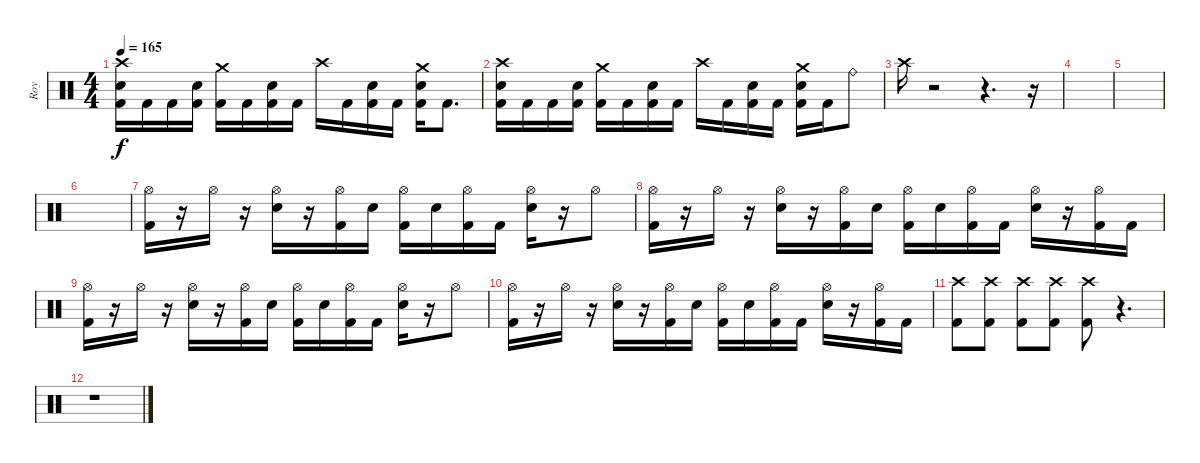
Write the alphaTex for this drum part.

\track ("Roy" "Roy") {instrument percussion}
\staff {score}
\articulation defaults
\ts (4 4)
\tempo 165
\clef neutral
\ks c
("Crash high (hit)" "Electric Snare (hit)" "Kick (hit) 2").16{dy f} "Kick (hit) 2".16 "Kick (hit) 2".16 ("Electric Snare (hit)" "Kick (hit) 2").16 ("Crash medium (hit)" "Kick (hit) 2").16 "Kick (hit) 2".16 ("Electric Snare (hit)" "Kick (hit) 2").16 "Kick (hit) 2".16 "Crash high (hit)".16 "Kick (hit) 2".16 ("Electric Snare (hit)" "Kick (hit) 2").16 "Kick (hit) 2".16 ("Crash medium (hit)" "Electric Snare (hit)" "Kick (hit) 2").16 "Kick (hit) 2".8{d} |
("Crash high (hit)" "Electric Snare (hit)" "Kick (hit) 2").16 "Kick (hit) 2".16 "Kick (hit) 2".16 ("Electric Snare (hit)" "Kick (hit) 2").16 ("Crash medium (hit)" "Kick (hit) 2").16 "Kick (hit) 2".16 ("Electric Snare (hit)" "Kick (hit) 2").16 "Kick (hit) 2".16 "Crash high (hit)".16 "Kick (hit) 2".16 ("Electric Snare (hit)" "Kick (hit) 2").16 "Kick (hit) 2".16 ("Crash medium (hit)" "Electric Snare (hit)" "Kick (hit) 2").16 "Kick (hit) 2".16 "Ride (bell)".8 |
"Crash high (hit)".16 r.2 r.4{d} r.16 |
|
|
|
("Hi-Hat (open)" "Kick (hit) 2").16 r.16 "Hi-Hat (open)".16 r.16 ("Hi-Hat (open)" "Electric Snare (hit)").16 r.16 ("Hi-Hat (open)" "Kick (hit) 2").16 "Electric Snare (hit)".16 ("Hi-Hat (open)" "Kick (hit) 2").16 "Electric Snare (hit)".16 ("Hi-Hat (open)" "Kick (hit) 2").16 "Kick (hit) 2".16 ("Hi-Hat (open)" "Electric Snare (hit)").16 r.16 "Hi-Hat (open)".8 |
("Hi-Hat (open)" "Kick (hit) 2").16 r.16 "Hi-Hat (open)".16 r.16 ("Hi-Hat (open)" "Electric Snare (hit)").16 r.16 ("Hi-Hat (open)" "Kick (hit) 2").16 "Electric Snare (hit)".16 ("Hi-Hat (open)" "Kick (hit) 2").16 "Electric Snare (hit)".16 ("Hi-Hat (open)" "Kick (hit) 2").16 "Kick (hit) 2".16 ("Hi-Hat (open)" "Electric Snare (hit)").16 r.16 ("Hi-Hat (open)" "Kick (hit) 2").16 "Kick (hit) 2".16 |
("Hi-Hat (open)" "Kick (hit) 2").16 r.16 "Hi-Hat (open)".16 r.16 ("Hi-Hat (open)" "Electric Snare (hit)").16 r.16 ("Hi-Hat (open)" "Kick (hit) 2").16 "Electric Snare (hit)".16 ("Hi-Hat (open)" "Kick (hit) 2").16 "Electric Snare (hit)".16 ("Hi-Hat (open)" "Kick (hit) 2").16 "Kick (hit) 2".16 ("Hi-Hat (open)" "Electric Snare (hit)").16 r.16 "Hi-Hat (open)".8 |
("Hi-Hat (open)" "Kick (hit) 2").16 r.16 "Hi-Hat (open)".16 r.16 ("Hi-Hat (open)" "Electric Snare (hit)").16 r.16 ("Hi-Hat (open)" "Kick (hit) 2").16 "Electric Snare (hit)".16 ("Hi-Hat (open)" "Kick (hit) 2").16 "Electric Snare (hit)".16 ("Hi-Hat (open)" "Kick (hit) 2").16 "Kick (hit) 2".16 ("Hi-Hat (open)" "Electric Snare (hit)").16 r.16 ("Hi-Hat (open)" "Kick (hit) 2").16 "Kick (hit) 2".16 |
("Crash high (hit)" "Kick (hit) 2").8 ("Crash high (hit)" "Kick (hit) 2").8 ("Crash high (hit)" "Kick (hit) 2").8 ("Crash high (hit)" "Kick (hit) 2").8 ("Crash high (hit)" "Kick (hit) 2").8 r.4{d} |
r.1
